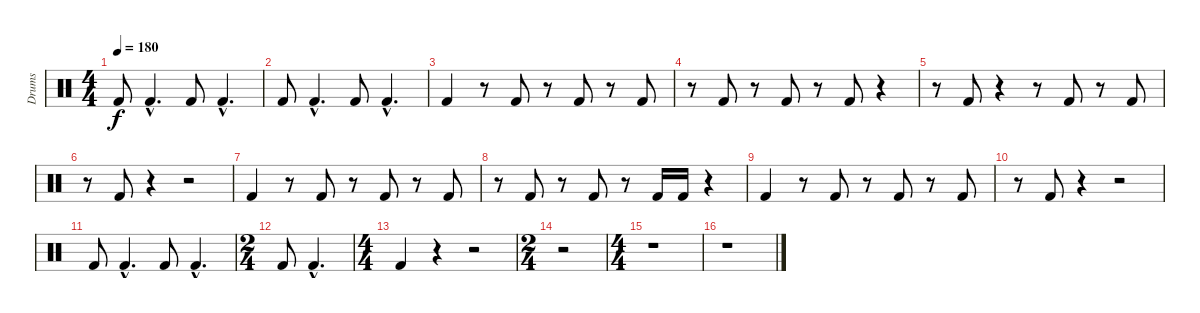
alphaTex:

\track ("Drums" "Drums") {instrument percussion}
\staff {score}
\articulation defaults
\ts (4 4)
\tempo 180
\clef neutral
\ks c "Kick (hit) 2".8{dy f} "Kick (hit) 2"{hac}.4{d} "Kick (hit) 2".8 "Kick (hit) 2"{hac}.4{d}
|
"Kick (hit) 2".8 "Kick (hit) 2"{hac}.4{d} "Kick (hit) 2".8 "Kick (hit) 2"{hac}.4{d} |
"Kick (hit) 2".4 r.8 "Kick (hit) 2".8 r.8 "Kick (hit) 2".8 r.8 "Kick (hit) 2".8 |
r.8 "Kick (hit) 2".8 r.8 "Kick (hit) 2".8 r.8 "Kick (hit) 2".8 r.4 |
r.8 "Kick (hit) 2".8 r.4 r.8 "Kick (hit) 2".8 r.8 "Kick (hit) 2".8 |
r.8 "Kick (hit) 2".8 r.4 r.2 |
"Kick (hit) 2".4 r.8 "Kick (hit) 2".8 r.8 "Kick (hit) 2".8 r.8 "Kick (hit) 2".8 |
r.8 "Kick (hit) 2".8 r.8 "Kick (hit) 2".8 r.8 "Kick (hit) 2".16 "Kick (hit) 2".16 r.4 |
"Kick (hit) 2".4 r.8 "Kick (hit) 2".8 r.8 "Kick (hit) 2".8 r.8 "Kick (hit) 2".8 |
r.8 "Kick (hit) 2".8 r.4 r.2 |
"Kick (hit) 2".8 "Kick (hit) 2"{hac}.4{d} "Kick (hit) 2".8 "Kick (hit) 2"{hac}.4{d} |
\ts (2 4)
"Kick (hit) 2".8 "Kick (hit) 2"{hac}.4{d} |
\ts (4 4)
"Kick (hit) 2".4 r.4 r.2 |
\ts (2 4)
r.2 |
\ts (4 4)
r.1 |
r.1
